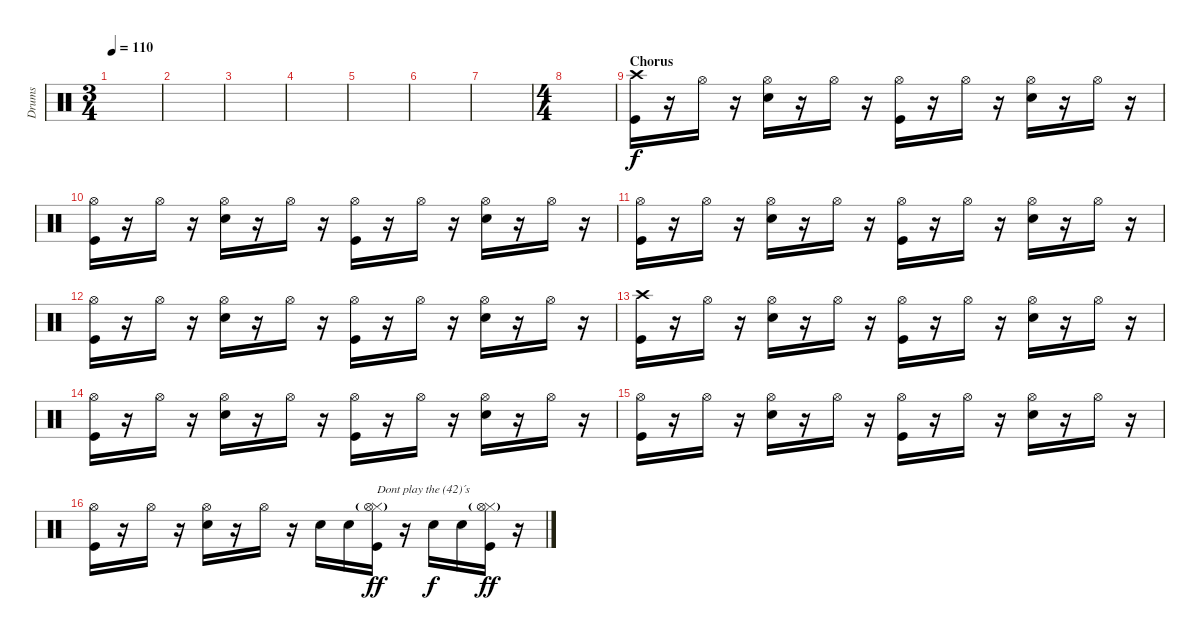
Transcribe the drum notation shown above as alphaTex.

\track ("Drums" "Drums") {instrument percussion}
\staff {score}
\articulation defaults
\ts (3 4)
\tempo 110
\clef neutral
\ks c
|
|
|
|
|
|
|
\ts (4 4)
|
\section ("" "Chorus")
("Crash high (hit)" "Kick (hit)").16 r.16 "Hi-Hat (open)".16 r.16 ("Hi-Hat (open)" "Snare (hit) 2").16 r.16 "Hi-Hat (open)".16 r.16 ("Hi-Hat (open)" "Kick (hit)").16 r.16 "Hi-Hat (open)".16 r.16 ("Hi-Hat (open)" "Snare (hit) 2").16 r.16 "Hi-Hat (open)".16 r.16 |
("Hi-Hat (open)" "Kick (hit)").16 r.16 "Hi-Hat (open)".16 r.16 ("Hi-Hat (open)" "Snare (hit) 2").16 r.16 "Hi-Hat (open)".16 r.16 ("Hi-Hat (open)" "Kick (hit)").16 r.16 "Hi-Hat (open)".16 r.16 ("Hi-Hat (open)" "Snare (hit) 2").16 r.16 "Hi-Hat (open)".16 r.16 |
("Hi-Hat (open)" "Kick (hit)").16 r.16 "Hi-Hat (open)".16 r.16 ("Hi-Hat (open)" "Snare (hit) 2").16 r.16 "Hi-Hat (open)".16 r.16 ("Hi-Hat (open)" "Kick (hit)").16 r.16 "Hi-Hat (open)".16 r.16 ("Hi-Hat (open)" "Snare (hit) 2").16 r.16 "Hi-Hat (open)".16 r.16 |
("Hi-Hat (open)" "Kick (hit)").16 r.16 "Hi-Hat (open)".16 r.16 ("Hi-Hat (open)" "Snare (hit) 2").16 r.16 "Hi-Hat (open)".16 r.16 ("Hi-Hat (open)" "Kick (hit)").16 r.16 "Hi-Hat (open)".16 r.16 ("Hi-Hat (open)" "Snare (hit) 2").16 r.16 "Hi-Hat (open)".16 r.16 |
("Crash high (hit)" "Kick (hit)").16 r.16 "Hi-Hat (open)".16 r.16 ("Hi-Hat (open)" "Snare (hit) 2").16 r.16 "Hi-Hat (open)".16 r.16 ("Hi-Hat (open)" "Kick (hit)").16 r.16 "Hi-Hat (open)".16 r.16 ("Hi-Hat (open)" "Snare (hit) 2").16 r.16 "Hi-Hat (open)".16 r.16 |
("Hi-Hat (open)" "Kick (hit)").16 r.16 "Hi-Hat (open)".16 r.16 ("Hi-Hat (open)" "Snare (hit) 2").16 r.16 "Hi-Hat (open)".16 r.16 ("Hi-Hat (open)" "Kick (hit)").16 r.16 "Hi-Hat (open)".16 r.16 ("Hi-Hat (open)" "Snare (hit) 2").16 r.16 "Hi-Hat (open)".16 r.16 |
("Hi-Hat (open)" "Kick (hit)").16 r.16 "Hi-Hat (open)".16 r.16 ("Hi-Hat (open)" "Snare (hit) 2").16 r.16 "Hi-Hat (open)".16 r.16 ("Hi-Hat (open)" "Kick (hit)").16 r.16 "Hi-Hat (open)".16 r.16 ("Hi-Hat (open)" "Snare (hit) 2").16 r.16 "Hi-Hat (open)".16 r.16 |
("Hi-Hat (open)" "Kick (hit)").16 r.16 "Hi-Hat (open)".16 r.16 ("Hi-Hat (open)" "Snare (hit) 2").16 r.16 "Hi-Hat (open)".16 r.16 "Snare (hit) 2".16 "Snare (hit) 2".16 ("Hi-Hat (closed)"{g} "Hi-Hat (open)" "Kick (hit)").16{txt "Dont play the (42)´s" dy ff} r.16 "Snare (hit) 2".16{dy f} "Snare (hit) 2".16 ("Hi-Hat (closed)"{g} "Hi-Hat (open)" "Kick (hit)").16{dy ff} r.16
